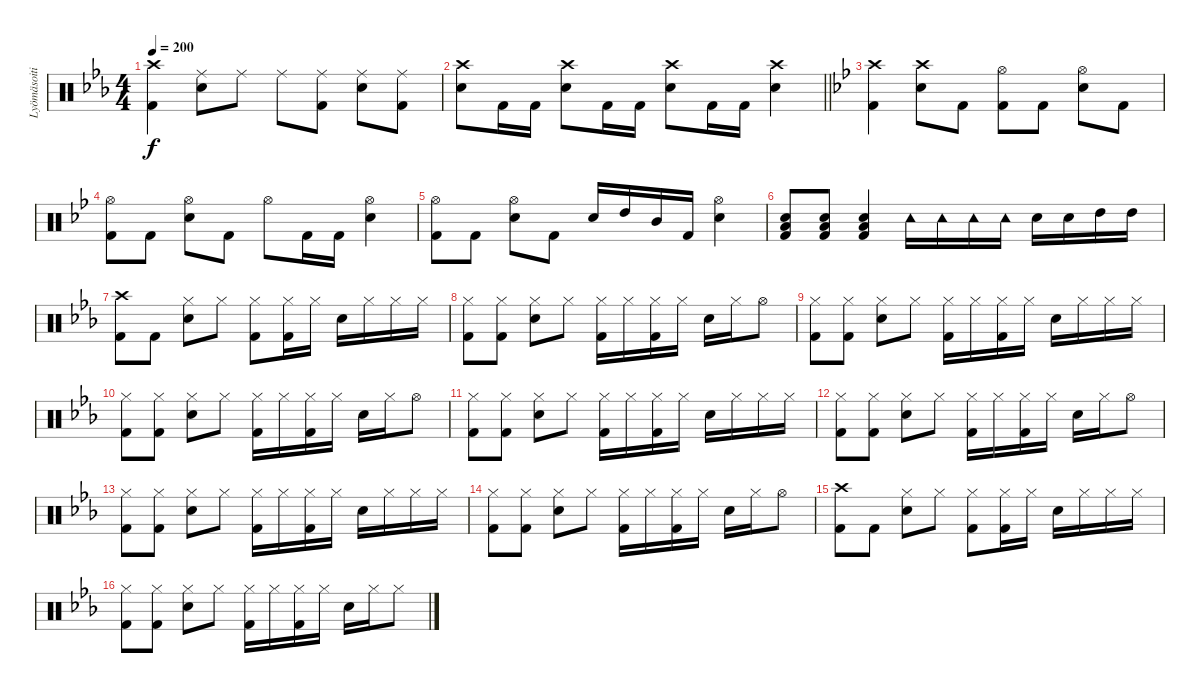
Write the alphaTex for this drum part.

\track ("Lyömäsoitin" "Lyömäsoiti") {instrument percussion}
\staff {score}
\articulation defaults
\ts (4 4)
\tempo 200
\clef neutral
\ks eb
("Crash high (hit)" "Kick (hit) 2").4{dy f} ("Ride (middle)" "Snare (hit) 2").8 "Ride (middle)".8 "Ride (middle)".8 ("Ride (middle)" "Kick (hit) 2").8 ("Ride (middle)" "Snare (hit) 2").8 ("Ride (middle)" "Kick (hit) 2").8 |
\barLineRight lightlight
("Crash high (hit)" "Snare (hit) 2").8 "Kick (hit) 2".16 "Kick (hit) 2".16 ("Crash high (hit)" "Snare (hit) 2").8 "Kick (hit) 2".16 "Kick (hit) 2".16 ("Crash high (hit)" "Snare (hit) 2").8 "Kick (hit) 2".16 "Kick (hit) 2".16 ("Crash high (hit)" "Snare (hit) 2").4 |
\ks bb
("Crash high (hit)" "Kick (hit) 2").4 ("Crash high (hit)" "Snare (hit) 2").8 "Kick (hit) 2".8 ("Hi-Hat (open)" "Kick (hit) 2").8 "Kick (hit) 2".8 ("Hi-Hat (open)" "Snare (hit) 2").8 "Kick (hit) 2".8 |
("Hi-Hat (open)" "Kick (hit) 2").8 "Kick (hit) 2".8 ("Hi-Hat (open)" "Snare (hit) 2").8 "Kick (hit) 2".8 "Hi-Hat (open)".8 "Kick (hit) 2".16 "Kick (hit) 2".16 ("Hi-Hat (open)" "Snare (hit) 2").4 |
("Hi-Hat (open)" "Kick (hit) 2").8 "Kick (hit) 2".8 ("Hi-Hat (open)" "Snare (hit) 2").8 "Kick (hit) 2".8 "Snare (hit) 2".16 "High Tom (hit)".16 "Mid Tom (hit)".16 "Kick (hit) 2".16 ("Hi-Hat (open)" "Snare (hit) 2").4 |
("Snare (hit) 2" "Low Tom (hit)" "Kick (hit) 2").8 ("Snare (hit) 2" "Low Tom (hit)" "Kick (hit) 2").8 ("Snare (hit) 2" "Low Tom (hit)" "Kick (hit) 2").4 "Tambourine (hit)".16 "Tambourine (hit)".16 "Tambourine (hit)".16 "Tambourine (hit)".16 "Snare (hit) 2".16 "Snare (hit) 2".16 "High Tom (hit)".16 "High Tom (hit)".16 |
\ks eb
("Crash high (hit)" "Kick (hit) 2").8 "Kick (hit) 2".8 ("Hi-Hat (closed)" "Snare (hit) 2").8 "Hi-Hat (closed)".8 ("Hi-Hat (closed)" "Kick (hit) 2").8 ("Hi-Hat (closed)" "Kick (hit) 2").16 "Hi-Hat (closed)".16 "Snare (hit) 2".16 "Hi-Hat (closed)".16 "Hi-Hat (closed)".16 "Hi-Hat (closed)".16 |
("Hi-Hat (closed)" "Kick (hit) 2").8 ("Hi-Hat (closed)" "Kick (hit) 2").8 ("Hi-Hat (closed)" "Snare (hit) 2").8 "Hi-Hat (closed)".8 ("Hi-Hat (closed)" "Kick (hit) 2").16 "Hi-Hat (closed)".16 ("Hi-Hat (closed)" "Kick (hit) 2").16 "Hi-Hat (closed)".16 "Snare (hit) 2".16 "Hi-Hat (closed)".16 "Hi-Hat (open)".8 |
("Hi-Hat (closed)" "Kick (hit) 2").8 ("Hi-Hat (closed)" "Kick (hit) 2").8 ("Hi-Hat (closed)" "Snare (hit) 2").8 "Hi-Hat (closed)".8 ("Hi-Hat (closed)" "Kick (hit) 2").16 "Hi-Hat (closed)".16 ("Hi-Hat (closed)" "Kick (hit) 2").16 "Hi-Hat (closed)".16 "Snare (hit) 2".16 "Hi-Hat (closed)".16 "Hi-Hat (closed)".16 "Hi-Hat (closed)".16 |
("Hi-Hat (closed)" "Kick (hit) 2").8 ("Hi-Hat (closed)" "Kick (hit) 2").8 ("Hi-Hat (closed)" "Snare (hit) 2").8 "Hi-Hat (closed)".8 ("Hi-Hat (closed)" "Kick (hit) 2").16 "Hi-Hat (closed)".16 ("Hi-Hat (closed)" "Kick (hit) 2").16 "Hi-Hat (closed)".16 "Snare (hit) 2".16 "Hi-Hat (closed)".16 "Hi-Hat (open)".8 |
("Hi-Hat (closed)" "Kick (hit) 2").8 ("Hi-Hat (closed)" "Kick (hit) 2").8 ("Hi-Hat (closed)" "Snare (hit) 2").8 "Hi-Hat (closed)".8 ("Hi-Hat (closed)" "Kick (hit) 2").16 "Hi-Hat (closed)".16 ("Hi-Hat (closed)" "Kick (hit) 2").16 "Hi-Hat (closed)".16 "Snare (hit) 2".16 "Hi-Hat (closed)".16 "Hi-Hat (closed)".16 "Hi-Hat (closed)".16 |
("Hi-Hat (closed)" "Kick (hit) 2").8 ("Hi-Hat (closed)" "Kick (hit) 2").8 ("Hi-Hat (closed)" "Snare (hit) 2").8 "Hi-Hat (closed)".8 ("Hi-Hat (closed)" "Kick (hit) 2").16 "Hi-Hat (closed)".16 ("Hi-Hat (closed)" "Kick (hit) 2").16 "Hi-Hat (closed)".16 "Snare (hit) 2".16 "Hi-Hat (closed)".16 "Hi-Hat (open)".8 |
("Hi-Hat (closed)" "Kick (hit) 2").8 ("Hi-Hat (closed)" "Kick (hit) 2").8 ("Hi-Hat (closed)" "Snare (hit) 2").8 "Hi-Hat (closed)".8 ("Hi-Hat (closed)" "Kick (hit) 2").16 "Hi-Hat (closed)".16 ("Hi-Hat (closed)" "Kick (hit) 2").16 "Hi-Hat (closed)".16 "Snare (hit) 2".16 "Hi-Hat (closed)".16 "Hi-Hat (closed)".16 "Hi-Hat (closed)".16 |
("Hi-Hat (closed)" "Kick (hit) 2").8 ("Hi-Hat (closed)" "Kick (hit) 2").8 ("Hi-Hat (closed)" "Snare (hit) 2").8 "Hi-Hat (closed)".8 ("Hi-Hat (closed)" "Kick (hit) 2").16 "Hi-Hat (closed)".16 ("Hi-Hat (closed)" "Kick (hit) 2").16 "Hi-Hat (closed)".16 "Snare (hit) 2".16 "Hi-Hat (closed)".16 "Hi-Hat (open)".8 |
("Crash high (hit)" "Kick (hit) 2").8 "Kick (hit) 2".8 ("Hi-Hat (closed)" "Snare (hit) 2").8 "Hi-Hat (closed)".8 ("Hi-Hat (closed)" "Kick (hit) 2").8 ("Hi-Hat (closed)" "Kick (hit) 2").16 "Hi-Hat (closed)".16 "Snare (hit) 2".16 "Hi-Hat (closed)".16 "Hi-Hat (closed)".16 "Hi-Hat (closed)".16 |
("Hi-Hat (closed)" "Kick (hit) 2").8 ("Hi-Hat (closed)" "Kick (hit) 2").8 ("Hi-Hat (closed)" "Snare (hit) 2").8 "Hi-Hat (closed)".8 ("Hi-Hat (closed)" "Kick (hit) 2").16 "Hi-Hat (closed)".16 ("Hi-Hat (closed)" "Kick (hit) 2").16 "Hi-Hat (closed)".16 "Snare (hit) 2".16 "Hi-Hat (closed)".16 "Hi-Hat (closed)".8
